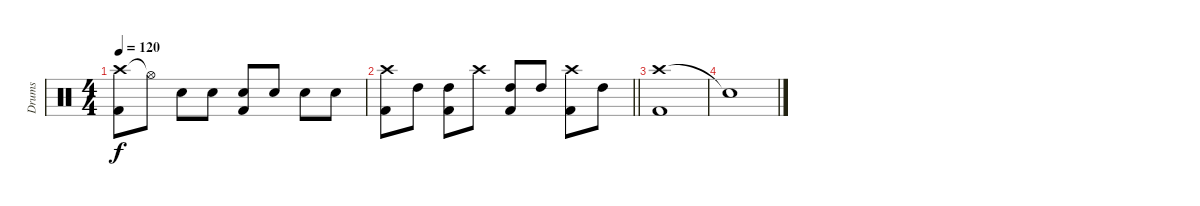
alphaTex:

\track ("Drums" "Drums") {instrument percussion}
\staff {score}
\articulation defaults
\ts (4 4)
\tempo 120
\clef neutral
\ks c
("Crash high (hit)" "Kick (hit) 2").8{dy f} "Hi-Hat (open)"{t}.8 "Electric Snare (hit)".8 "Electric Snare (hit)".8 ("Electric Snare (hit)" "Kick (hit) 2").8 "Electric Snare (hit)".8 "Electric Snare (hit)".8 "Electric Snare (hit)".8 |
\barLineRight lightlight
("Crash high (hit)" "Kick (hit) 2").8 "High Tom (hit)".8 ("High Tom (hit)" "Kick (hit) 2").8 "Crash high (hit)".8 ("High Tom (hit)" "Kick (hit) 2").8 "High Tom (hit)".8 ("Crash high (hit)" "Kick (hit) 2").8 "High Tom (hit)".8 |
("Crash high (hit)" "Kick (hit) 2").1 |
"Snare (hit)"{t}.1
